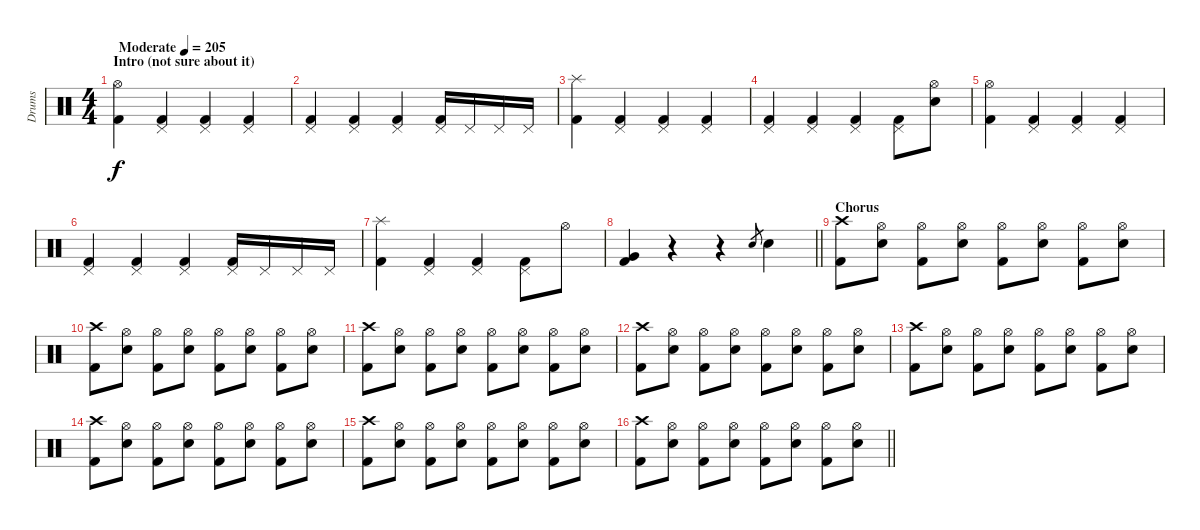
\track ("Drums" "Drums") {instrument percussion}
\staff {score}
\articulation defaults
\ts (4 4)
\section ("" "Intro (not sure about it)")
\tempo (205 "Moderate")
\clef neutral
\ks c
("Hi-Hat (open)" "Kick (hit) 2").4{dy f} ("Pedal Hi-Hat (hit)" "Kick (hit) 2").4 ("Pedal Hi-Hat (hit)" "Kick (hit) 2").4 ("Pedal Hi-Hat (hit)" "Kick (hit) 2").4 |
("Pedal Hi-Hat (hit)" "Kick (hit) 2").4 ("Pedal Hi-Hat (hit)" "Kick (hit) 2").4 ("Pedal Hi-Hat (hit)" "Kick (hit) 2").4 ("Pedal Hi-Hat (hit)" "Kick (hit) 2").16 "Pedal Hi-Hat (hit)".16 "Pedal Hi-Hat (hit)".16 "Pedal Hi-Hat (hit)".16 |
("Splash (hit)" "Kick (hit) 2").4 ("Pedal Hi-Hat (hit)" "Kick (hit) 2").4 ("Pedal Hi-Hat (hit)" "Kick (hit) 2").4 ("Pedal Hi-Hat (hit)" "Kick (hit) 2").4 |
("Pedal Hi-Hat (hit)" "Kick (hit) 2").4 ("Pedal Hi-Hat (hit)" "Kick (hit) 2").4 ("Pedal Hi-Hat (hit)" "Kick (hit) 2").4 ("Pedal Hi-Hat (hit)" "Kick (hit) 2").8 ("Hi-Hat (open)" "Snare (hit) 2").8 |
("Hi-Hat (open)" "Kick (hit) 2").4 ("Pedal Hi-Hat (hit)" "Kick (hit) 2").4 ("Pedal Hi-Hat (hit)" "Kick (hit) 2").4 ("Pedal Hi-Hat (hit)" "Kick (hit) 2").4 |
("Pedal Hi-Hat (hit)" "Kick (hit) 2").4 ("Pedal Hi-Hat (hit)" "Kick (hit) 2").4 ("Pedal Hi-Hat (hit)" "Kick (hit) 2").4 ("Pedal Hi-Hat (hit)" "Kick (hit) 2").16 "Pedal Hi-Hat (hit)".16 "Pedal Hi-Hat (hit)".16 "Pedal Hi-Hat (hit)".16 |
("Splash (hit)" "Kick (hit) 2").4 ("Pedal Hi-Hat (hit)" "Kick (hit) 2").4 ("Pedal Hi-Hat (hit)" "Kick (hit) 2").4 ("Pedal Hi-Hat (hit)" "Kick (hit) 2").8 "Hi-Hat (open)".8 |
\barLineRight lightlight
("Very Low Tom (hit)" "Kick (hit) 2").4 r.4 r.4 "Snare (hit) 2".8{gr} "Snare (hit) 2".4 |
\section ("" "Chorus")
("Crash high (hit)" "Kick (hit) 2").8 ("Hi-Hat (open)" "Snare (hit) 2").8 ("Hi-Hat (open)" "Kick (hit) 2").8 ("Hi-Hat (open)" "Snare (hit) 2").8 ("Hi-Hat (open)" "Kick (hit) 2").8 ("Hi-Hat (open)" "Snare (hit) 2").8 ("Hi-Hat (open)" "Kick (hit) 2").8 ("Hi-Hat (open)" "Snare (hit) 2").8 |
("Crash high (hit)" "Kick (hit) 2").8 ("Hi-Hat (open)" "Snare (hit) 2").8 ("Hi-Hat (open)" "Kick (hit) 2").8 ("Hi-Hat (open)" "Snare (hit) 2").8 ("Hi-Hat (open)" "Kick (hit) 2").8 ("Hi-Hat (open)" "Snare (hit) 2").8 ("Hi-Hat (open)" "Kick (hit) 2").8 ("Hi-Hat (open)" "Snare (hit) 2").8 |
("Crash high (hit)" "Kick (hit) 2").8 ("Hi-Hat (open)" "Snare (hit) 2").8 ("Hi-Hat (open)" "Kick (hit) 2").8 ("Hi-Hat (open)" "Snare (hit) 2").8 ("Hi-Hat (open)" "Kick (hit) 2").8 ("Hi-Hat (open)" "Snare (hit) 2").8 ("Hi-Hat (open)" "Kick (hit) 2").8 ("Hi-Hat (open)" "Snare (hit) 2").8 |
("Crash high (hit)" "Kick (hit) 2").8 ("Hi-Hat (open)" "Snare (hit) 2").8 ("Hi-Hat (open)" "Kick (hit) 2").8 ("Hi-Hat (open)" "Snare (hit) 2").8 ("Hi-Hat (open)" "Kick (hit) 2").8 ("Hi-Hat (open)" "Snare (hit) 2").8 ("Hi-Hat (open)" "Kick (hit) 2").8 ("Hi-Hat (open)" "Snare (hit) 2").8 |
("Crash high (hit)" "Kick (hit) 2").8 ("Hi-Hat (open)" "Snare (hit) 2").8 ("Hi-Hat (open)" "Kick (hit) 2").8 ("Hi-Hat (open)" "Snare (hit) 2").8 ("Hi-Hat (open)" "Kick (hit) 2").8 ("Hi-Hat (open)" "Snare (hit) 2").8 ("Hi-Hat (open)" "Kick (hit) 2").8 ("Hi-Hat (open)" "Snare (hit) 2").8 |
("Crash high (hit)" "Kick (hit) 2").8 ("Hi-Hat (open)" "Snare (hit) 2").8 ("Hi-Hat (open)" "Kick (hit) 2").8 ("Hi-Hat (open)" "Snare (hit) 2").8 ("Hi-Hat (open)" "Kick (hit) 2").8 ("Hi-Hat (open)" "Snare (hit) 2").8 ("Hi-Hat (open)" "Kick (hit) 2").8 ("Hi-Hat (open)" "Snare (hit) 2").8 |
("Crash high (hit)" "Kick (hit) 2").8 ("Hi-Hat (open)" "Snare (hit) 2").8 ("Hi-Hat (open)" "Kick (hit) 2").8 ("Hi-Hat (open)" "Snare (hit) 2").8 ("Hi-Hat (open)" "Kick (hit) 2").8 ("Hi-Hat (open)" "Snare (hit) 2").8 ("Hi-Hat (open)" "Kick (hit) 2").8 ("Hi-Hat (open)" "Snare (hit) 2").8 |
\barLineRight lightlight
("Crash high (hit)" "Kick (hit) 2").8 ("Hi-Hat (open)" "Snare (hit) 2").8 ("Hi-Hat (open)" "Kick (hit) 2").8 ("Hi-Hat (open)" "Snare (hit) 2").8 ("Hi-Hat (open)" "Kick (hit) 2").8 ("Hi-Hat (open)" "Snare (hit) 2").8 ("Hi-Hat (open)" "Kick (hit) 2").8 ("Hi-Hat (open)" "Snare (hit) 2").8
